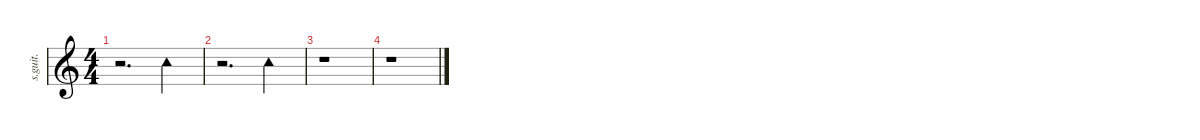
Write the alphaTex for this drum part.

\defaultSystemsLayout 4
\hideDynamics
\bracketExtendMode nobrackets
\track ("Tambourine" "s.guit.") {instrument percussion}
\staff {score}
\articulation defaults
\ts (4 4)
\tempo (136 hide)
\clef g2
\ks c
r.2{d dy f} "Tambourine (hit)".4 |
r.2{d} "Tambourine (hit)".4 |
r.1 |
r.1
